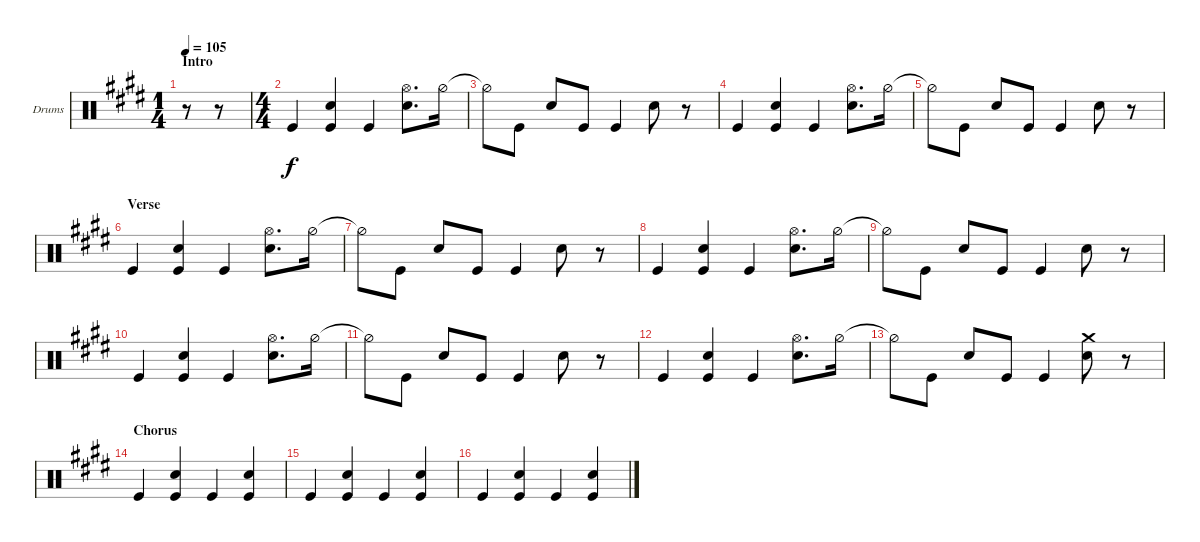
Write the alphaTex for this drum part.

\defaultSystemsLayout 4
\bracketExtendMode groupsimilarinstruments
\firstSystemTrackNameOrientation horizontal
\otherSystemsTrackNameOrientation horizontal
\track ("Drums" "Drums") {instrument percussion}
\staff {score}
\articulation defaults
\ts (1 4)
\section ("" "Intro")
\tempo 105
\clef neutral
\ks e
r.8{dy f} r.8 |
\ts (4 4)
"Kick (hit)".4 ("Snare (hit) 2" "Kick (hit)").4 "Kick (hit)".4 ("Snare (hit) 2" "Hi-Hat (open)").8{d} "Hi-Hat (half)".16 |
"Hi-Hat (half)"{t}.8 "Kick (hit)".8 "Snare (hit) 2".8 "Kick (hit)".8 "Kick (hit)".4 "Snare (hit) 2".8 r.8 |
"Kick (hit)".4 ("Snare (hit) 2" "Kick (hit)").4 "Kick (hit)".4 ("Snare (hit) 2" "Hi-Hat (open)").8{d} "Hi-Hat (half)".16 |
"Hi-Hat (half)"{t}.8 "Kick (hit)".8 "Snare (hit) 2".8 "Kick (hit)".8 "Kick (hit)".4 "Snare (hit) 2".8 r.8 |
\section ("" "Verse")
"Kick (hit)".4 ("Snare (hit) 2" "Kick (hit)").4 "Kick (hit)".4 ("Snare (hit) 2" "Hi-Hat (open)").8{d} "Hi-Hat (half)".16 |
"Hi-Hat (half)"{t}.8 "Kick (hit)".8 "Snare (hit) 2".8 "Kick (hit)".8 "Kick (hit)".4 "Snare (hit) 2".8 r.8 |
"Kick (hit)".4 ("Snare (hit) 2" "Kick (hit)").4 "Kick (hit)".4 ("Snare (hit) 2" "Hi-Hat (open)").8{d} "Hi-Hat (half)".16 |
"Hi-Hat (half)"{t}.8 "Kick (hit)".8 "Snare (hit) 2".8 "Kick (hit)".8 "Kick (hit)".4 "Snare (hit) 2".8 r.8 |
"Kick (hit)".4 ("Snare (hit) 2" "Kick (hit)").4 "Kick (hit)".4 ("Snare (hit) 2" "Hi-Hat (open)").8{d} "Hi-Hat (half)".16 |
"Hi-Hat (half)"{t}.8 "Kick (hit)".8 "Snare (hit) 2".8 "Kick (hit)".8 "Kick (hit)".4 "Snare (hit) 2".8 r.8 |
"Kick (hit)".4 ("Snare (hit) 2" "Kick (hit)").4 "Kick (hit)".4 ("Snare (hit) 2" "Hi-Hat (open)").8{d} "Hi-Hat (half)".16 |
"Hi-Hat (half)"{t}.8 "Kick (hit)".8 "Snare (hit) 2".8 "Kick (hit)".8 "Kick (hit)".4 ("Snare (hit) 2" "Crash medium (hit)").8 r.8 |
\section ("" "Chorus")
"Kick (hit)".4 ("Kick (hit)" "Snare (hit) 2").4 "Kick (hit)".4 ("Kick (hit)" "Snare (hit) 2").4 |
"Kick (hit)".4 ("Kick (hit)" "Snare (hit) 2").4 "Kick (hit)".4 ("Kick (hit)" "Snare (hit) 2").4 |
"Kick (hit)".4 ("Kick (hit)" "Snare (hit) 2").4 "Kick (hit)".4 ("Kick (hit)" "Snare (hit) 2").4
